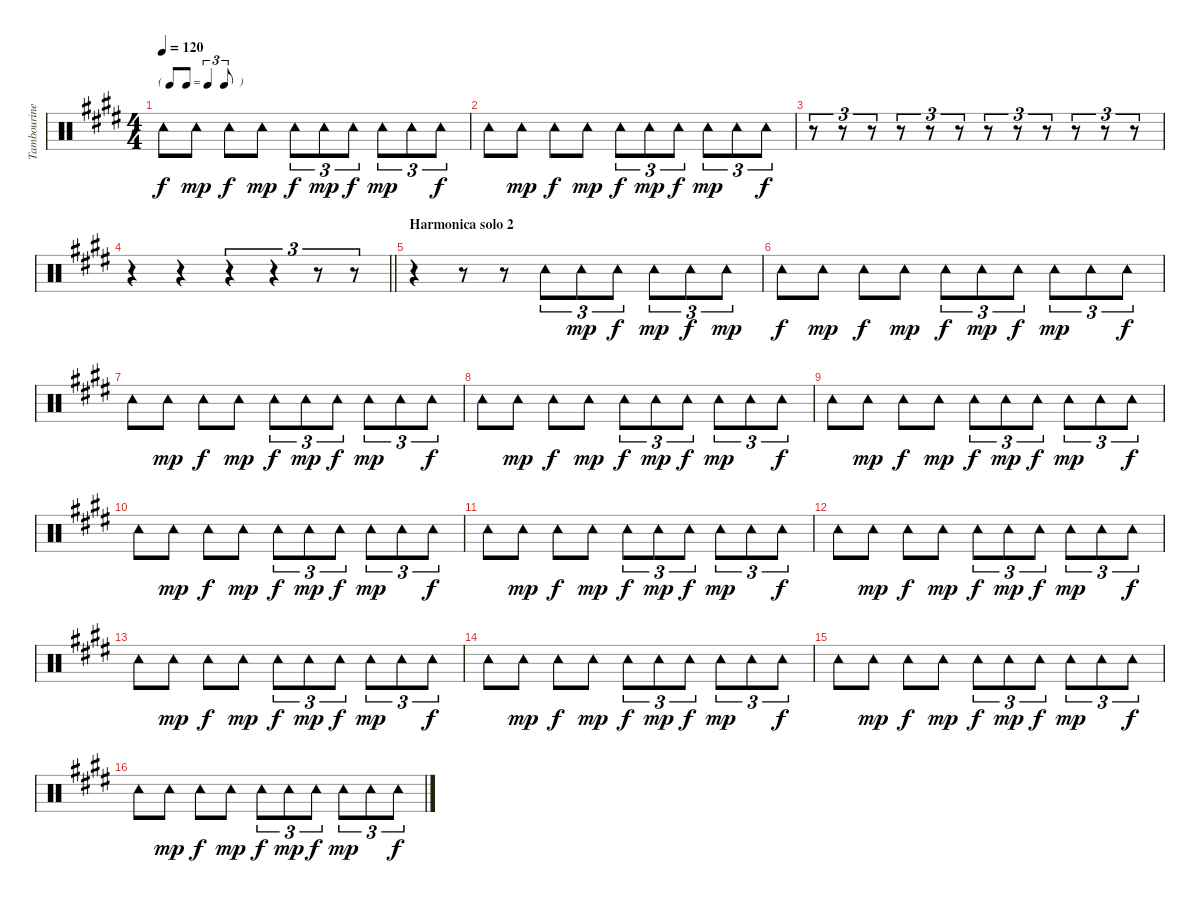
\track ("Tambourine" "Tambourine") {instrument percussion}
\staff {score}
\articulation defaults
\ts (4 4)
\tf triplet8th
\tempo 120
\clef neutral
\ks e "Tambourine (hit)".8{dy f} "Tambourine (hit)".8{dy mp} "Tambourine (hit)".8{dy f} "Tambourine (hit)".8{dy mp} "Tambourine (hit)".8{tu (3 2) dy f} "Tambourine (hit)".8{tu (3 2) dy mp} "Tambourine (hit)".8{tu (3 2) dy f} "Tambourine (hit)".8{tu (3 2) dy mp} "Tambourine (hit)".8{tu (3 2)} "Tambourine (hit)".8{tu (3 2) dy f}
|
"Tambourine (hit)".8 "Tambourine (hit)".8{dy mp} "Tambourine (hit)".8{dy f} "Tambourine (hit)".8{dy mp} "Tambourine (hit)".8{tu (3 2) dy f} "Tambourine (hit)".8{tu (3 2) dy mp} "Tambourine (hit)".8{tu (3 2) dy f} "Tambourine (hit)".8{tu (3 2) dy mp} "Tambourine (hit)".8{tu (3 2)} "Tambourine (hit)".8{tu (3 2) dy f} |
r.8{tu (3 2)} r.8{tu (3 2)} r.8{tu (3 2)} r.8{tu (3 2)} r.8{tu (3 2)} r.8{tu (3 2)} r.8{tu (3 2)} r.8{tu (3 2)} r.8{tu (3 2)} r.8{tu (3 2)} r.8{tu (3 2)} r.8{tu (3 2)} |
\barLineRight lightlight
r.4 r.4 r.4{tu (3 2)} r.4{tu (3 2)} r.8{tu (3 2)} r.8{tu (3 2)} |
\section ("" "Harmonica solo 2")
r.4 r.8 r.8 "Tambourine (hit)".8{tu (3 2)} "Tambourine (hit)".8{tu (3 2) dy mp} "Tambourine (hit)".8{tu (3 2) dy f} "Tambourine (hit)".8{tu (3 2) dy mp} "Tambourine (hit)".8{tu (3 2) dy f} "Tambourine (hit)".8{tu (3 2) dy mp} |
"Tambourine (hit)".8{dy f} "Tambourine (hit)".8{dy mp} "Tambourine (hit)".8{dy f} "Tambourine (hit)".8{dy mp} "Tambourine (hit)".8{tu (3 2) dy f} "Tambourine (hit)".8{tu (3 2) dy mp} "Tambourine (hit)".8{tu (3 2) dy f} "Tambourine (hit)".8{tu (3 2) dy mp} "Tambourine (hit)".8{tu (3 2)} "Tambourine (hit)".8{tu (3 2) dy f} |
"Tambourine (hit)".8 "Tambourine (hit)".8{dy mp} "Tambourine (hit)".8{dy f} "Tambourine (hit)".8{dy mp} "Tambourine (hit)".8{tu (3 2) dy f} "Tambourine (hit)".8{tu (3 2) dy mp} "Tambourine (hit)".8{tu (3 2) dy f} "Tambourine (hit)".8{tu (3 2) dy mp} "Tambourine (hit)".8{tu (3 2)} "Tambourine (hit)".8{tu (3 2) dy f} |
"Tambourine (hit)".8 "Tambourine (hit)".8{dy mp} "Tambourine (hit)".8{dy f} "Tambourine (hit)".8{dy mp} "Tambourine (hit)".8{tu (3 2) dy f} "Tambourine (hit)".8{tu (3 2) dy mp} "Tambourine (hit)".8{tu (3 2) dy f} "Tambourine (hit)".8{tu (3 2) dy mp} "Tambourine (hit)".8{tu (3 2)} "Tambourine (hit)".8{tu (3 2) dy f} |
"Tambourine (hit)".8 "Tambourine (hit)".8{dy mp} "Tambourine (hit)".8{dy f} "Tambourine (hit)".8{dy mp} "Tambourine (hit)".8{tu (3 2) dy f} "Tambourine (hit)".8{tu (3 2) dy mp} "Tambourine (hit)".8{tu (3 2) dy f} "Tambourine (hit)".8{tu (3 2) dy mp} "Tambourine (hit)".8{tu (3 2)} "Tambourine (hit)".8{tu (3 2) dy f} |
"Tambourine (hit)".8 "Tambourine (hit)".8{dy mp} "Tambourine (hit)".8{dy f} "Tambourine (hit)".8{dy mp} "Tambourine (hit)".8{tu (3 2) dy f} "Tambourine (hit)".8{tu (3 2) dy mp} "Tambourine (hit)".8{tu (3 2) dy f} "Tambourine (hit)".8{tu (3 2) dy mp} "Tambourine (hit)".8{tu (3 2)} "Tambourine (hit)".8{tu (3 2) dy f} |
"Tambourine (hit)".8 "Tambourine (hit)".8{dy mp} "Tambourine (hit)".8{dy f} "Tambourine (hit)".8{dy mp} "Tambourine (hit)".8{tu (3 2) dy f} "Tambourine (hit)".8{tu (3 2) dy mp} "Tambourine (hit)".8{tu (3 2) dy f} "Tambourine (hit)".8{tu (3 2) dy mp} "Tambourine (hit)".8{tu (3 2)} "Tambourine (hit)".8{tu (3 2) dy f} |
"Tambourine (hit)".8 "Tambourine (hit)".8{dy mp} "Tambourine (hit)".8{dy f} "Tambourine (hit)".8{dy mp} "Tambourine (hit)".8{tu (3 2) dy f} "Tambourine (hit)".8{tu (3 2) dy mp} "Tambourine (hit)".8{tu (3 2) dy f} "Tambourine (hit)".8{tu (3 2) dy mp} "Tambourine (hit)".8{tu (3 2)} "Tambourine (hit)".8{tu (3 2) dy f} |
"Tambourine (hit)".8 "Tambourine (hit)".8{dy mp} "Tambourine (hit)".8{dy f} "Tambourine (hit)".8{dy mp} "Tambourine (hit)".8{tu (3 2) dy f} "Tambourine (hit)".8{tu (3 2) dy mp} "Tambourine (hit)".8{tu (3 2) dy f} "Tambourine (hit)".8{tu (3 2) dy mp} "Tambourine (hit)".8{tu (3 2)} "Tambourine (hit)".8{tu (3 2) dy f} |
"Tambourine (hit)".8 "Tambourine (hit)".8{dy mp} "Tambourine (hit)".8{dy f} "Tambourine (hit)".8{dy mp} "Tambourine (hit)".8{tu (3 2) dy f} "Tambourine (hit)".8{tu (3 2) dy mp} "Tambourine (hit)".8{tu (3 2) dy f} "Tambourine (hit)".8{tu (3 2) dy mp} "Tambourine (hit)".8{tu (3 2)} "Tambourine (hit)".8{tu (3 2) dy f} |
"Tambourine (hit)".8 "Tambourine (hit)".8{dy mp} "Tambourine (hit)".8{dy f} "Tambourine (hit)".8{dy mp} "Tambourine (hit)".8{tu (3 2) dy f} "Tambourine (hit)".8{tu (3 2) dy mp} "Tambourine (hit)".8{tu (3 2) dy f} "Tambourine (hit)".8{tu (3 2) dy mp} "Tambourine (hit)".8{tu (3 2)} "Tambourine (hit)".8{tu (3 2) dy f} |
"Tambourine (hit)".8 "Tambourine (hit)".8{dy mp} "Tambourine (hit)".8{dy f} "Tambourine (hit)".8{dy mp} "Tambourine (hit)".8{tu (3 2) dy f} "Tambourine (hit)".8{tu (3 2) dy mp} "Tambourine (hit)".8{tu (3 2) dy f} "Tambourine (hit)".8{tu (3 2) dy mp} "Tambourine (hit)".8{tu (3 2)} "Tambourine (hit)".8{tu (3 2) dy f}
